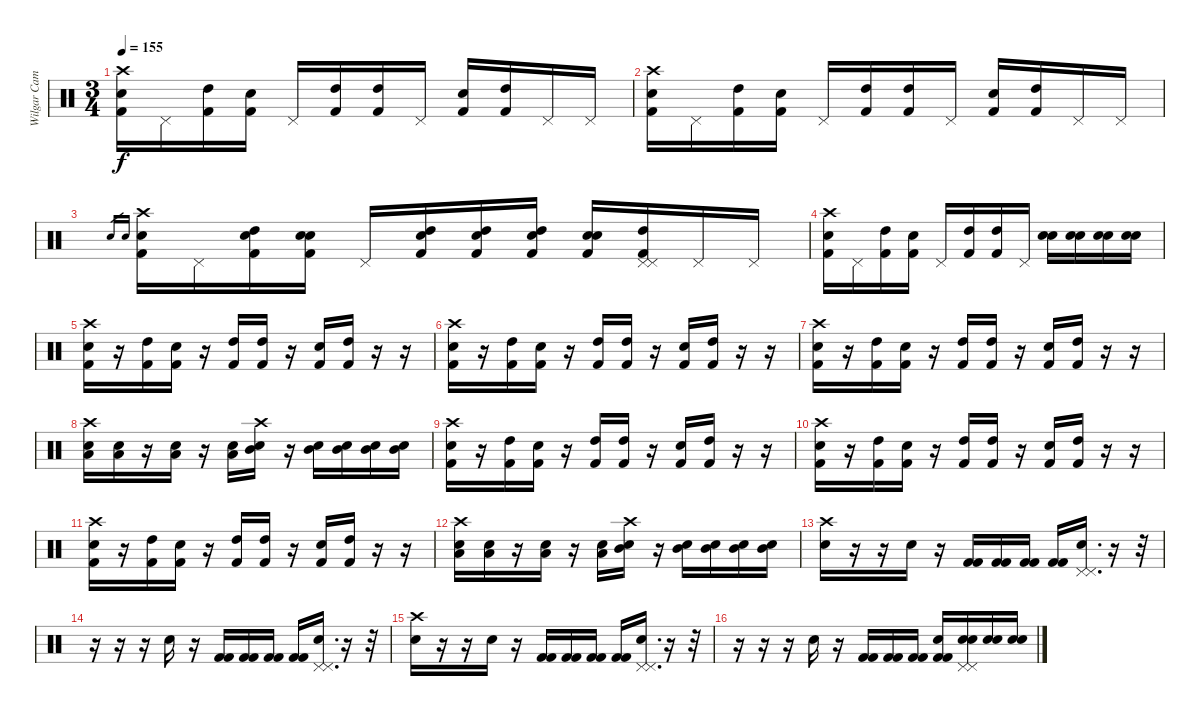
\track ("Wilgar Campbell" "Wilgar Cam") {instrument percussion}
\staff {score}
\articulation defaults
\ts (3 4)
\tempo 155
\clef neutral
\ks c
("Kick (hit) 2" "Snare (hit) 2" "Crash high (hit)").16{dy f} "Pedal Hi-Hat (hit)".16 ("Kick (hit) 2" "High Tom (hit)").16 ("Kick (hit) 2" "Snare (hit) 2").16 "Pedal Hi-Hat (hit)".16 ("High Tom (hit)" "Kick (hit) 2").16 ("High Tom (hit)" "Kick (hit) 2").16 "Pedal Hi-Hat (hit)".16 ("Electric Snare (hit)" "Kick (hit) 2").16 ("High Tom (hit)" "Kick (hit) 2").16 "Pedal Hi-Hat (hit)".16 "Pedal Hi-Hat (hit)".16 |
("Kick (hit) 2" "Snare (hit) 2" "Crash high (hit)").16 "Pedal Hi-Hat (hit)".16 ("Kick (hit) 2" "High Tom (hit)").16 ("Kick (hit) 2" "Snare (hit) 2").16 "Pedal Hi-Hat (hit)".16 ("High Tom (hit)" "Kick (hit) 2").16 ("High Tom (hit)" "Kick (hit) 2").16 "Pedal Hi-Hat (hit)".16 ("Electric Snare (hit)" "Kick (hit) 2").16 ("High Tom (hit)" "Kick (hit) 2").16 "Pedal Hi-Hat (hit)".16 "Pedal Hi-Hat (hit)".16 |
"Electric Snare (hit)".16{gr} "Electric Snare (hit)".16{gr} ("Kick (hit) 2" "Snare (hit) 2" "Crash high (hit)").16 "Pedal Hi-Hat (hit)".16 ("Electric Snare (hit)" "Kick (hit) 2" "High Tom (hit)").16 ("Electric Snare (hit)" "Kick (hit) 2" "Snare (hit) 2").16 "Pedal Hi-Hat (hit)".16 ("Electric Snare (hit)" "High Tom (hit)" "Kick (hit) 2").16 ("Electric Snare (hit)" "High Tom (hit)" "Kick (hit) 2").16 ("Electric Snare (hit)" "High Tom (hit)" "Kick (hit) 2").16 ("Electric Snare (hit)" "Electric Snare (hit)" "Kick (hit) 2").16 ("Kick (hit) 2" "Pedal Hi-Hat (hit)" "High Tom (hit)" "Pedal Hi-Hat (hit)").16 "Pedal Hi-Hat (hit)".16 "Pedal Hi-Hat (hit)".16 |
("Kick (hit) 2" "Snare (hit) 2" "Crash high (hit)").16 "Pedal Hi-Hat (hit)".16 ("Kick (hit) 2" "High Tom (hit)").16 ("Kick (hit) 2" "Snare (hit) 2").16 "Pedal Hi-Hat (hit)".16 ("High Tom (hit)" "Kick (hit) 2").16 ("High Tom (hit)" "Kick (hit) 2").16 "Pedal Hi-Hat (hit)".16 ("Electric Snare (hit)" "Electric Snare (hit)").16 ("Electric Snare (hit)" "Electric Snare (hit)").16 ("Electric Snare (hit)" "Electric Snare (hit)").16 ("Electric Snare (hit)" "Electric Snare (hit)").16 |
("Kick (hit) 2" "Snare (hit) 2" "Crash high (hit)").16 r.16 ("Kick (hit) 2" "High Tom (hit)").16 ("Kick (hit) 2" "Snare (hit) 2").16 r.16 ("High Tom (hit)" "Kick (hit) 2").16 ("High Tom (hit)" "Kick (hit) 2").16 r.16 ("Electric Snare (hit)" "Kick (hit) 2").16 ("High Tom (hit)" "Kick (hit) 2").16 r.16 r.16 |
("Kick (hit) 2" "Snare (hit) 2" "Crash high (hit)").16 r.16 ("Kick (hit) 2" "High Tom (hit)").16 ("Kick (hit) 2" "Snare (hit) 2").16 r.16 ("High Tom (hit)" "Kick (hit) 2").16 ("High Tom (hit)" "Kick (hit) 2").16 r.16 ("Electric Snare (hit)" "Kick (hit) 2").16 ("High Tom (hit)" "Kick (hit) 2").16 r.16 r.16 |
("Kick (hit) 2" "Snare (hit) 2" "Crash high (hit)").16 r.16 ("Kick (hit) 2" "High Tom (hit)").16 ("Kick (hit) 2" "Snare (hit) 2").16 r.16 ("High Tom (hit)" "Kick (hit) 2").16 ("High Tom (hit)" "Kick (hit) 2").16 r.16 ("Electric Snare (hit)" "Kick (hit) 2").16 ("High Tom (hit)" "Kick (hit) 2").16 r.16 r.16 |
("Crash high (hit)" "Low Tom (hit)" "Snare (hit) 2").16 ("Low Tom (hit)" "Snare (hit) 2").16 r.16 ("Low Tom (hit)" "Snare (hit) 2").16 r.16 ("Low Tom (hit)" "Snare (hit) 2").16 ("Crash high (hit)" "Mid Tom (hit)" "Snare (hit) 2").16 r.16 ("Mid Tom (hit)" "Snare (hit) 2").16 ("Mid Tom (hit)" "Snare (hit) 2").16 ("Mid Tom (hit)" "Snare (hit) 2").16 ("Mid Tom (hit)" "Snare (hit) 2").16 |
("Kick (hit) 2" "Snare (hit) 2" "Crash high (hit)").16 r.16 ("Kick (hit) 2" "High Tom (hit)").16 ("Kick (hit) 2" "Snare (hit) 2").16 r.16 ("High Tom (hit)" "Kick (hit) 2").16 ("High Tom (hit)" "Kick (hit) 2").16 r.16 ("Electric Snare (hit)" "Kick (hit) 2").16 ("High Tom (hit)" "Kick (hit) 2").16 r.16 r.16 |
("Kick (hit) 2" "Snare (hit) 2" "Crash high (hit)").16 r.16 ("Kick (hit) 2" "High Tom (hit)").16 ("Kick (hit) 2" "Snare (hit) 2").16 r.16 ("High Tom (hit)" "Kick (hit) 2").16 ("High Tom (hit)" "Kick (hit) 2").16 r.16 ("Electric Snare (hit)" "Kick (hit) 2").16 ("High Tom (hit)" "Kick (hit) 2").16 r.16 r.16 |
("Kick (hit) 2" "Snare (hit) 2" "Crash high (hit)").16 r.16 ("Kick (hit) 2" "High Tom (hit)").16 ("Kick (hit) 2" "Snare (hit) 2").16 r.16 ("High Tom (hit)" "Kick (hit) 2").16 ("High Tom (hit)" "Kick (hit) 2").16 r.16 ("Electric Snare (hit)" "Kick (hit) 2").16 ("High Tom (hit)" "Kick (hit) 2").16 r.16 r.16 |
("Crash high (hit)" "Low Tom (hit)" "Snare (hit) 2").16 ("Low Tom (hit)" "Snare (hit) 2").16 r.16 ("Low Tom (hit)" "Snare (hit) 2").16 r.16 ("Low Tom (hit)" "Snare (hit) 2").16 ("Crash high (hit)" "Mid Tom (hit)" "Snare (hit) 2").16 r.16 ("Mid Tom (hit)" "Snare (hit) 2").16 ("Mid Tom (hit)" "Snare (hit) 2").16 ("Mid Tom (hit)" "Snare (hit) 2").16 ("Mid Tom (hit)" "Snare (hit) 2").16 |
("Electric Snare (hit)" "Crash high (hit)").16 r.16 r.16 "Electric Snare (hit)".16 r.16 ("Kick (hit) 2" "Kick (hit) 2").16 ("Kick (hit) 2" "Kick (hit) 2").16 ("Kick (hit) 2" "Kick (hit) 2").16 ("Kick (hit) 2" "Kick (hit) 2").16 ("Pedal Hi-Hat (hit)" "Electric Snare (hit)" "Pedal Hi-Hat (hit)").16{d} r.16 r.32 |
r.16 r.16 r.16 "Electric Snare (hit)".16 r.16 ("Kick (hit) 2" "Kick (hit) 2").16 ("Kick (hit) 2" "Kick (hit) 2").16 ("Kick (hit) 2" "Kick (hit) 2").16 ("Kick (hit) 2" "Kick (hit) 2").16 ("Pedal Hi-Hat (hit)" "Electric Snare (hit)" "Pedal Hi-Hat (hit)").16{d} r.16 r.32 |
("Electric Snare (hit)" "Crash high (hit)").16 r.16 r.16 "Electric Snare (hit)".16 r.16 ("Kick (hit) 2" "Kick (hit) 2").16 ("Kick (hit) 2" "Kick (hit) 2").16 ("Kick (hit) 2" "Kick (hit) 2").16 ("Kick (hit) 2" "Kick (hit) 2").16 ("Pedal Hi-Hat (hit)" "Electric Snare (hit)" "Pedal Hi-Hat (hit)").16{d} r.16 r.32 |
r.16 r.16 r.16 "Electric Snare (hit)".16 r.16 ("Kick (hit) 2" "Kick (hit) 2").16 ("Kick (hit) 2" "Kick (hit) 2").16 ("Kick (hit) 2" "Kick (hit) 2").16 ("Kick (hit) 2" "Kick (hit) 2" "Electric Snare (hit)").16 ("Pedal Hi-Hat (hit)" "Electric Snare (hit)" "Pedal Hi-Hat (hit)" "Electric Snare (hit)").16 ("Electric Snare (hit)" "Electric Snare (hit)").16 ("Electric Snare (hit)" "Electric Snare (hit)").16
